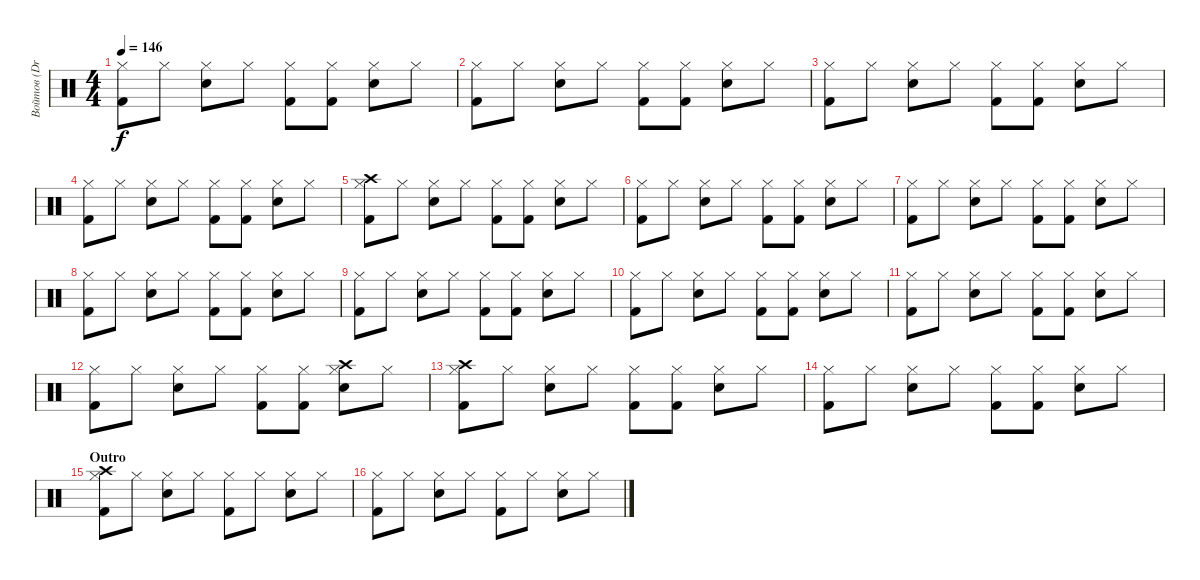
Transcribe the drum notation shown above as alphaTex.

\track ("Войтов (Drums)" "Войтов (Dr") {instrument percussion}
\staff {score}
\articulation defaults
\ts (4 4)
\tempo 146
\clef neutral
\ks c
("Kick (hit) 2" "Hi-Hat (closed)").8{dy f} "Hi-Hat (closed)".8 ("Electric Snare (hit)" "Hi-Hat (closed)").8 "Hi-Hat (closed)".8 ("Kick (hit) 2" "Hi-Hat (closed)").8 ("Kick (hit) 2" "Hi-Hat (closed)").8 ("Electric Snare (hit)" "Hi-Hat (closed)").8 "Hi-Hat (closed)".8 |
("Kick (hit) 2" "Hi-Hat (closed)").8 "Hi-Hat (closed)".8 ("Electric Snare (hit)" "Hi-Hat (closed)").8 "Hi-Hat (closed)".8 ("Kick (hit) 2" "Hi-Hat (closed)").8 ("Kick (hit) 2" "Hi-Hat (closed)").8 ("Electric Snare (hit)" "Hi-Hat (closed)").8 "Hi-Hat (closed)".8 |
("Kick (hit) 2" "Hi-Hat (closed)").8 "Hi-Hat (closed)".8 ("Electric Snare (hit)" "Hi-Hat (closed)").8 "Hi-Hat (closed)".8 ("Kick (hit) 2" "Hi-Hat (closed)").8 ("Kick (hit) 2" "Hi-Hat (closed)").8 ("Electric Snare (hit)" "Hi-Hat (closed)").8 "Hi-Hat (closed)".8 |
("Kick (hit) 2" "Hi-Hat (closed)").8 "Hi-Hat (closed)".8 ("Electric Snare (hit)" "Hi-Hat (closed)").8 "Hi-Hat (closed)".8 ("Kick (hit) 2" "Hi-Hat (closed)").8 ("Kick (hit) 2" "Hi-Hat (closed)").8 ("Electric Snare (hit)" "Hi-Hat (closed)").8 "Hi-Hat (closed)".8 |
("Kick (hit) 2" "Crash high (hit)" "Hi-Hat (closed)").8 "Hi-Hat (closed)".8 ("Electric Snare (hit)" "Hi-Hat (closed)").8 "Hi-Hat (closed)".8 ("Kick (hit) 2" "Hi-Hat (closed)").8 ("Kick (hit) 2" "Hi-Hat (closed)").8 ("Electric Snare (hit)" "Hi-Hat (closed)").8 "Hi-Hat (closed)".8 |
("Kick (hit) 2" "Hi-Hat (closed)").8 "Hi-Hat (closed)".8 ("Electric Snare (hit)" "Hi-Hat (closed)").8 "Hi-Hat (closed)".8 ("Kick (hit) 2" "Hi-Hat (closed)").8 ("Kick (hit) 2" "Hi-Hat (closed)").8 ("Electric Snare (hit)" "Hi-Hat (closed)").8 "Hi-Hat (closed)".8 |
("Kick (hit) 2" "Hi-Hat (closed)").8 "Hi-Hat (closed)".8 ("Electric Snare (hit)" "Hi-Hat (closed)").8 "Hi-Hat (closed)".8 ("Kick (hit) 2" "Hi-Hat (closed)").8 ("Kick (hit) 2" "Hi-Hat (closed)").8 ("Electric Snare (hit)" "Hi-Hat (closed)").8 "Hi-Hat (closed)".8 |
("Kick (hit) 2" "Hi-Hat (closed)").8 "Hi-Hat (closed)".8 ("Electric Snare (hit)" "Hi-Hat (closed)").8 "Hi-Hat (closed)".8 ("Kick (hit) 2" "Hi-Hat (closed)").8 ("Kick (hit) 2" "Hi-Hat (closed)").8 ("Electric Snare (hit)" "Hi-Hat (closed)").8 "Hi-Hat (closed)".8 |
("Kick (hit) 2" "Hi-Hat (closed)").8 "Hi-Hat (closed)".8 ("Electric Snare (hit)" "Hi-Hat (closed)").8 "Hi-Hat (closed)".8 ("Kick (hit) 2" "Hi-Hat (closed)").8 ("Kick (hit) 2" "Hi-Hat (closed)").8 ("Electric Snare (hit)" "Hi-Hat (closed)").8 "Hi-Hat (closed)".8 |
("Kick (hit) 2" "Hi-Hat (closed)").8 "Hi-Hat (closed)".8 ("Electric Snare (hit)" "Hi-Hat (closed)").8 "Hi-Hat (closed)".8 ("Kick (hit) 2" "Hi-Hat (closed)").8 ("Kick (hit) 2" "Hi-Hat (closed)").8 ("Electric Snare (hit)" "Hi-Hat (closed)").8 "Hi-Hat (closed)".8 |
("Kick (hit) 2" "Hi-Hat (closed)").8 "Hi-Hat (closed)".8 ("Electric Snare (hit)" "Hi-Hat (closed)").8 "Hi-Hat (closed)".8 ("Kick (hit) 2" "Hi-Hat (closed)").8 ("Kick (hit) 2" "Hi-Hat (closed)").8 ("Electric Snare (hit)" "Hi-Hat (closed)").8 "Hi-Hat (closed)".8 |
("Kick (hit) 2" "Hi-Hat (closed)").8 "Hi-Hat (closed)".8 ("Electric Snare (hit)" "Hi-Hat (closed)").8 "Hi-Hat (closed)".8 ("Kick (hit) 2" "Hi-Hat (closed)").8 ("Kick (hit) 2" "Hi-Hat (closed)").8 ("Electric Snare (hit)" "Crash high (hit)" "Hi-Hat (closed)").8 "Hi-Hat (closed)".8 |
("Kick (hit) 2" "Crash high (hit)" "Hi-Hat (closed)").8 "Hi-Hat (closed)".8 ("Electric Snare (hit)" "Hi-Hat (closed)").8 "Hi-Hat (closed)".8 ("Kick (hit) 2" "Hi-Hat (closed)").8 ("Kick (hit) 2" "Hi-Hat (closed)").8 ("Electric Snare (hit)" "Hi-Hat (closed)").8 "Hi-Hat (closed)".8 |
("Kick (hit) 2" "Hi-Hat (closed)").8 "Hi-Hat (closed)".8 ("Electric Snare (hit)" "Hi-Hat (closed)").8 "Hi-Hat (closed)".8 ("Kick (hit) 2" "Hi-Hat (closed)").8 ("Kick (hit) 2" "Hi-Hat (closed)").8 ("Electric Snare (hit)" "Hi-Hat (closed)").8 "Hi-Hat (closed)".8 |
\section ("" "Outro")
("Kick (hit) 2" "Hi-Hat (closed)" "Crash high (hit)").8 "Hi-Hat (closed)".8 ("Electric Snare (hit)" "Hi-Hat (closed)").8 "Hi-Hat (closed)".8 ("Kick (hit) 2" "Hi-Hat (closed)").8 "Hi-Hat (closed)".8 ("Electric Snare (hit)" "Hi-Hat (closed)").8 "Hi-Hat (closed)".8 |
("Kick (hit) 2" "Hi-Hat (closed)").8 "Hi-Hat (closed)".8 ("Electric Snare (hit)" "Hi-Hat (closed)").8 "Hi-Hat (closed)".8 ("Kick (hit) 2" "Hi-Hat (closed)").8 "Hi-Hat (closed)".8 ("Electric Snare (hit)" "Hi-Hat (closed)").8 "Hi-Hat (closed)".8
